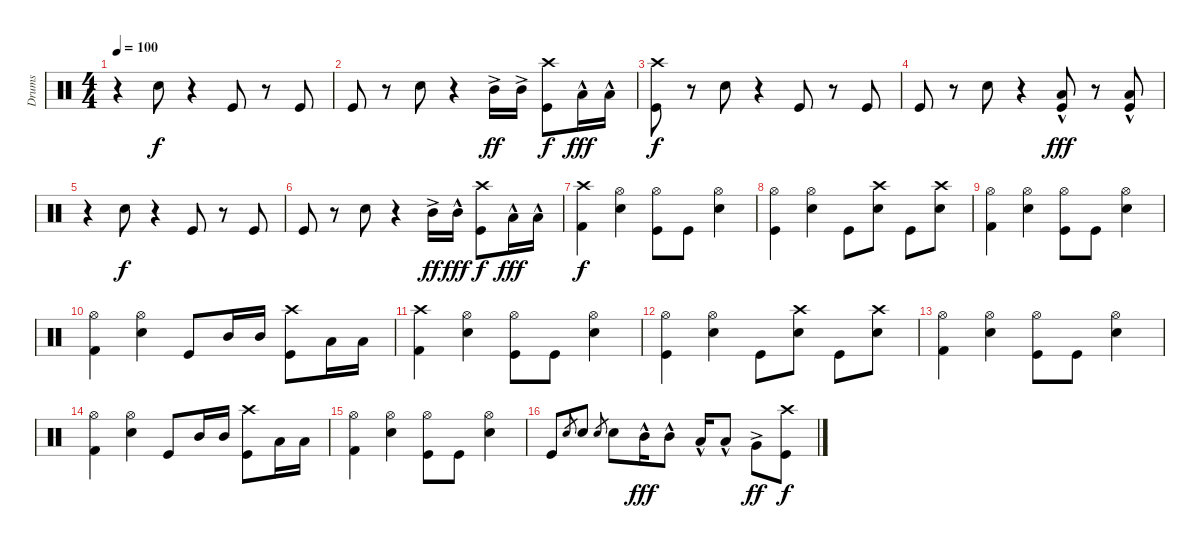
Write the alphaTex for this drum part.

\track ("Drums" "Drums") {instrument percussion}
\staff {score}
\articulation defaults
\ts (4 4)
\tempo 100
\clef neutral
\ks c
r.4{dy f} "Snare (hit) 2".8 r.4 "Kick (hit)".8 r.8 "Kick (hit)".8 |
"Kick (hit)".8 r.8 "Snare (hit) 2".8 r.4 "Mid Tom (hit)"{ac}.16{dy ff} "Mid Tom (hit)"{ac}.16 ("Crash high (hit)" "Kick (hit)").8{dy f} "Low Tom (hit)"{hac}.16{dy fff} "Low Tom (hit)"{hac}.16 |
("Crash high (hit)" "Kick (hit)").8{dy f} r.8 "Snare (hit) 2".8 r.4 "Kick (hit)".8 r.8 "Kick (hit)".8 |
"Kick (hit)".8 r.8 "Snare (hit) 2".8 r.4 ("Low Tom (hit)"{hac} "Kick (hit)").8{dy fff} r.8 ("Low Tom (hit)"{hac} "Kick (hit)").8 |
r.4 "Snare (hit) 2".8{dy f} r.4 "Kick (hit)".8 r.8 "Kick (hit)".8 |
"Kick (hit)".8 r.8 "Snare (hit) 2".8 r.4 "Mid Tom (hit)"{ac}.16{dy ff} "Mid Tom (hit)"{hac}.16{dy fff} ("Crash high (hit)" "Kick (hit)").8{dy f} "Low Tom (hit)"{hac}.16{dy fff} "Low Tom (hit)"{hac}.16 |
("Crash high (hit)" "Kick (hit) 2").4{dy f} ("Hi-Hat (open)" "Snare (hit) 2").4 ("Hi-Hat (open)" "Kick (hit)").8 "Kick (hit)".8 ("Hi-Hat (open)" "Snare (hit) 2").4 |
("Hi-Hat (open)" "Kick (hit)").4 ("Hi-Hat (open)" "Snare (hit) 2").4 "Kick (hit)".8 ("Crash high (hit)" "Snare (hit) 2").8 "Kick (hit)".8 ("Crash high (hit)" "Snare (hit) 2").8 |
("Hi-Hat (open)" "Kick (hit) 2").4 ("Hi-Hat (open)" "Snare (hit) 2").4 ("Hi-Hat (open)" "Kick (hit)").8 "Kick (hit)".8 ("Hi-Hat (open)" "Snare (hit) 2").4 |
("Hi-Hat (open)" "Kick (hit) 2").4 ("Hi-Hat (open)" "Snare (hit) 2").4 "Kick (hit)".8 "Mid Tom (hit)".16 "Mid Tom (hit)".16 ("Crash high (hit)" "Kick (hit)").8 "Low Tom (hit)".16 "Low Tom (hit)".16 |
("Crash high (hit)" "Kick (hit) 2").4 ("Hi-Hat (open)" "Snare (hit) 2").4 ("Hi-Hat (open)" "Kick (hit)").8 "Kick (hit)".8 ("Hi-Hat (open)" "Snare (hit) 2").4 |
("Hi-Hat (open)" "Kick (hit)").4 ("Hi-Hat (open)" "Snare (hit) 2").4 "Kick (hit)".8 ("Crash high (hit)" "Snare (hit) 2").8 "Kick (hit)".8 ("Crash high (hit)" "Snare (hit) 2").8 |
("Hi-Hat (open)" "Kick (hit) 2").4 ("Hi-Hat (open)" "Snare (hit) 2").4 ("Hi-Hat (open)" "Kick (hit)").8 "Kick (hit)".8 ("Hi-Hat (open)" "Snare (hit) 2").4 |
("Hi-Hat (open)" "Kick (hit) 2").4 ("Hi-Hat (open)" "Snare (hit) 2").4 "Kick (hit)".8 "Mid Tom (hit)".16 "Mid Tom (hit)".16 ("Crash high (hit)" "Kick (hit)").8 "Low Tom (hit)".16 "Low Tom (hit)".16 |
("Hi-Hat (open)" "Kick (hit) 2").4 ("Hi-Hat (open)" "Snare (hit) 2").4 ("Hi-Hat (open)" "Kick (hit)").8 "Kick (hit)".8 ("Hi-Hat (open)" "Snare (hit) 2").4 |
"Kick (hit)".8{volume 16} "Snare (hit) 2".8{gr} "Snare (hit) 2".8 "Snare (hit) 2".8{gr} "Snare (hit) 2".8 "Mid Tom (hit)"{hac}.16{dy fff} "Mid Tom (hit)"{hac}.8 "Low Tom (hit)"{hac}.16 "Low Tom (hit)"{hac}.8 "Very Low Tom (hit)"{ac}.8{dy ff} ("Crash high (hit)" "Kick (hit)").8{dy f volume 10}
